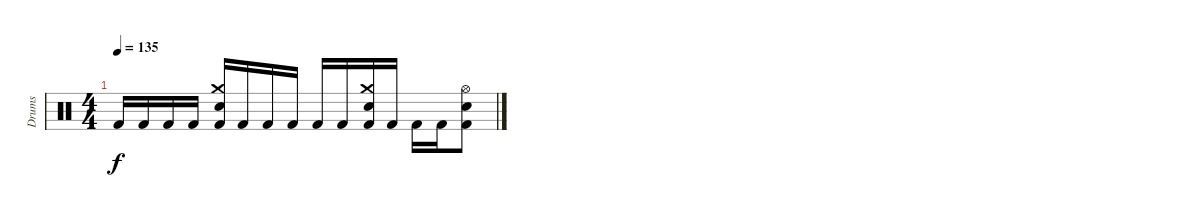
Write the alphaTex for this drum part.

\track ("Drums" "Drums") {instrument percussion}
\staff {score}
\articulation defaults
\ts (4 4)
\tempo 135
\clef neutral
\ks c "Kick (hit) 2".16{dy f} "Kick (hit) 2".16 "Kick (hit) 2".16 "Kick (hit) 2".16
("Crash medium (hit)" "Snare (hit) 2" "Kick (hit) 2").16 "Kick (hit) 2".16 "Kick (hit) 2".16 "Kick (hit) 2".16 "Kick (hit) 2".16 "Kick (hit) 2".16 ("Crash medium (hit)" "Snare (hit) 2" "Kick (hit) 2").16 "Kick (hit) 2".16 "Kick (hit) 2".16 "Kick (hit) 2".16 ("Hi-Hat (open)" "Snare (hit) 2" "Kick (hit) 2").8
